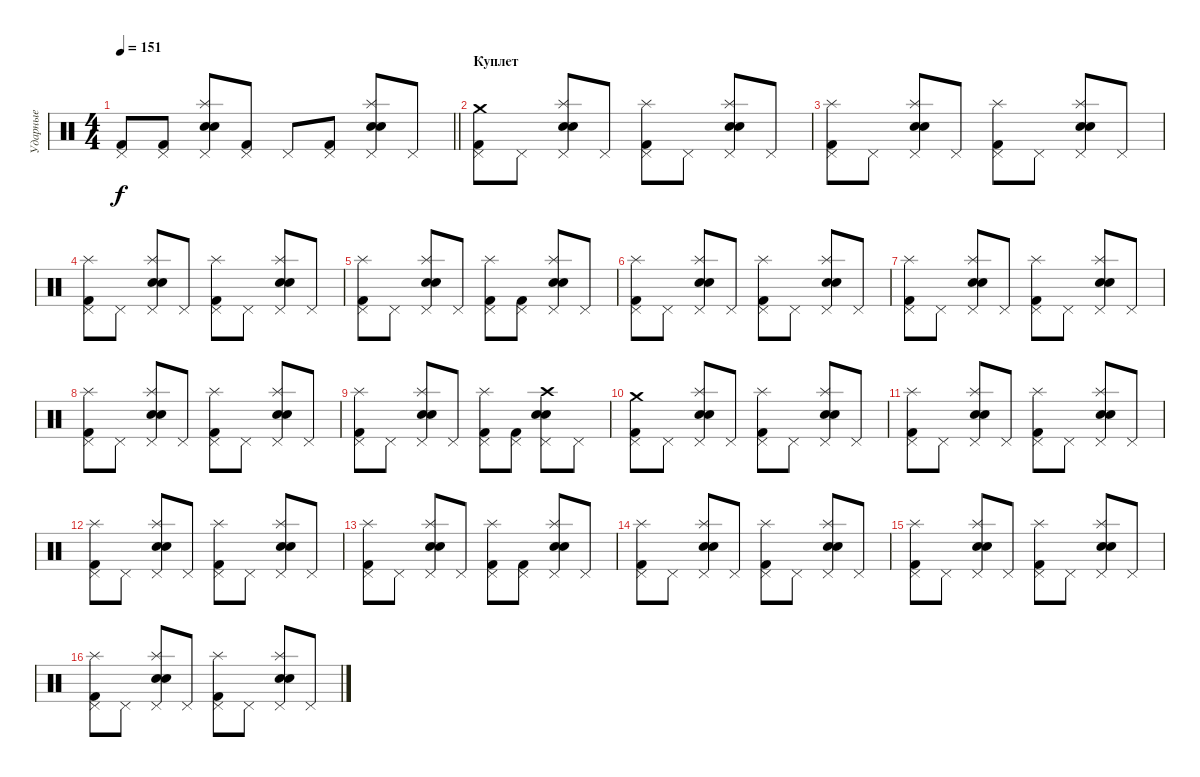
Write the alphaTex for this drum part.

\track ("Ударные" "Ударные") {instrument percussion}
\staff {score}
\articulation defaults
\ts (4 4)
\tempo 151
\clef neutral
\barLineRight lightlight
\ks c
("Pedal Hi-Hat (hit)" "Kick (hit) 2").8{dy f} ("Pedal Hi-Hat (hit)" "Kick (hit) 2").8 ("Pedal Hi-Hat (hit)" "Splash (hit)" "Electric Snare (hit)" "Snare (hit) 2").8 ("Pedal Hi-Hat (hit)" "Kick (hit) 2").8 "Pedal Hi-Hat (hit)".8 ("Pedal Hi-Hat (hit)" "Kick (hit) 2").8 ("Pedal Hi-Hat (hit)" "Splash (hit)" "Electric Snare (hit)" "Snare (hit) 2").8 "Pedal Hi-Hat (hit)".8 |
\section ("" "Куплет")
("Pedal Hi-Hat (hit)" "Crash medium (hit)" "Kick (hit) 2").8 "Pedal Hi-Hat (hit)".8 ("Pedal Hi-Hat (hit)" "Splash (hit)" "Electric Snare (hit)" "Snare (hit) 2").8 "Pedal Hi-Hat (hit)".8 ("Pedal Hi-Hat (hit)" "Splash (hit)" "Kick (hit) 2").8 "Pedal Hi-Hat (hit)".8 ("Pedal Hi-Hat (hit)" "Splash (hit)" "Electric Snare (hit)" "Snare (hit) 2").8 "Pedal Hi-Hat (hit)".8 |
("Pedal Hi-Hat (hit)" "Splash (hit)" "Kick (hit) 2").8 "Pedal Hi-Hat (hit)".8 ("Pedal Hi-Hat (hit)" "Splash (hit)" "Electric Snare (hit)" "Snare (hit) 2").8 "Pedal Hi-Hat (hit)".8 ("Pedal Hi-Hat (hit)" "Splash (hit)" "Kick (hit) 2").8 "Pedal Hi-Hat (hit)".8 ("Pedal Hi-Hat (hit)" "Splash (hit)" "Electric Snare (hit)" "Snare (hit) 2").8 "Pedal Hi-Hat (hit)".8 |
("Pedal Hi-Hat (hit)" "Splash (hit)" "Kick (hit) 2").8 "Pedal Hi-Hat (hit)".8 ("Pedal Hi-Hat (hit)" "Splash (hit)" "Electric Snare (hit)" "Snare (hit) 2").8 "Pedal Hi-Hat (hit)".8 ("Pedal Hi-Hat (hit)" "Splash (hit)" "Kick (hit) 2").8 "Pedal Hi-Hat (hit)".8 ("Pedal Hi-Hat (hit)" "Splash (hit)" "Electric Snare (hit)" "Snare (hit) 2").8 "Pedal Hi-Hat (hit)".8 |
("Pedal Hi-Hat (hit)" "Splash (hit)" "Kick (hit) 2").8 "Pedal Hi-Hat (hit)".8 ("Pedal Hi-Hat (hit)" "Splash (hit)" "Electric Snare (hit)" "Snare (hit) 2").8 "Pedal Hi-Hat (hit)".8 ("Pedal Hi-Hat (hit)" "Splash (hit)" "Kick (hit) 2").8 ("Pedal Hi-Hat (hit)" "Kick (hit) 2").8 ("Pedal Hi-Hat (hit)" "Splash (hit)" "Electric Snare (hit)" "Snare (hit) 2").8 "Pedal Hi-Hat (hit)".8 |
("Pedal Hi-Hat (hit)" "Splash (hit)" "Kick (hit) 2").8 "Pedal Hi-Hat (hit)".8 ("Pedal Hi-Hat (hit)" "Splash (hit)" "Electric Snare (hit)" "Snare (hit) 2").8 "Pedal Hi-Hat (hit)".8 ("Pedal Hi-Hat (hit)" "Splash (hit)" "Kick (hit) 2").8 "Pedal Hi-Hat (hit)".8 ("Pedal Hi-Hat (hit)" "Splash (hit)" "Electric Snare (hit)" "Snare (hit) 2").8 "Pedal Hi-Hat (hit)".8 |
("Pedal Hi-Hat (hit)" "Splash (hit)" "Kick (hit) 2").8 "Pedal Hi-Hat (hit)".8 ("Pedal Hi-Hat (hit)" "Splash (hit)" "Electric Snare (hit)" "Snare (hit) 2").8 "Pedal Hi-Hat (hit)".8 ("Pedal Hi-Hat (hit)" "Splash (hit)" "Kick (hit) 2").8 "Pedal Hi-Hat (hit)".8 ("Pedal Hi-Hat (hit)" "Splash (hit)" "Electric Snare (hit)" "Snare (hit) 2").8 "Pedal Hi-Hat (hit)".8 |
("Pedal Hi-Hat (hit)" "Splash (hit)" "Kick (hit) 2").8 "Pedal Hi-Hat (hit)".8 ("Pedal Hi-Hat (hit)" "Splash (hit)" "Electric Snare (hit)" "Snare (hit) 2").8 "Pedal Hi-Hat (hit)".8 ("Pedal Hi-Hat (hit)" "Splash (hit)" "Kick (hit) 2").8 "Pedal Hi-Hat (hit)".8 ("Pedal Hi-Hat (hit)" "Splash (hit)" "Electric Snare (hit)" "Snare (hit) 2").8 "Pedal Hi-Hat (hit)".8 |
("Pedal Hi-Hat (hit)" "Splash (hit)" "Kick (hit) 2").8 "Pedal Hi-Hat (hit)".8 ("Pedal Hi-Hat (hit)" "Splash (hit)" "Electric Snare (hit)" "Snare (hit) 2").8 "Pedal Hi-Hat (hit)".8 ("Pedal Hi-Hat (hit)" "Splash (hit)" "Kick (hit) 2").8 ("Pedal Hi-Hat (hit)" "Kick (hit) 2").8 ("Pedal Hi-Hat (hit)" "Crash high (hit)" "Electric Snare (hit)" "Snare (hit) 2").8 "Pedal Hi-Hat (hit)".8 |
("Pedal Hi-Hat (hit)" "Crash medium (hit)" "Kick (hit) 2").8 "Pedal Hi-Hat (hit)".8 ("Pedal Hi-Hat (hit)" "Splash (hit)" "Electric Snare (hit)" "Snare (hit) 2").8 "Pedal Hi-Hat (hit)".8 ("Pedal Hi-Hat (hit)" "Splash (hit)" "Kick (hit) 2").8 "Pedal Hi-Hat (hit)".8 ("Pedal Hi-Hat (hit)" "Splash (hit)" "Electric Snare (hit)" "Snare (hit) 2").8 "Pedal Hi-Hat (hit)".8 |
("Pedal Hi-Hat (hit)" "Splash (hit)" "Kick (hit) 2").8 "Pedal Hi-Hat (hit)".8 ("Pedal Hi-Hat (hit)" "Splash (hit)" "Electric Snare (hit)" "Snare (hit) 2").8 "Pedal Hi-Hat (hit)".8 ("Pedal Hi-Hat (hit)" "Splash (hit)" "Kick (hit) 2").8 "Pedal Hi-Hat (hit)".8 ("Pedal Hi-Hat (hit)" "Splash (hit)" "Electric Snare (hit)" "Snare (hit) 2").8 "Pedal Hi-Hat (hit)".8 |
("Pedal Hi-Hat (hit)" "Splash (hit)" "Kick (hit) 2").8 "Pedal Hi-Hat (hit)".8 ("Pedal Hi-Hat (hit)" "Splash (hit)" "Electric Snare (hit)" "Snare (hit) 2").8 "Pedal Hi-Hat (hit)".8 ("Pedal Hi-Hat (hit)" "Splash (hit)" "Kick (hit) 2").8 "Pedal Hi-Hat (hit)".8 ("Pedal Hi-Hat (hit)" "Splash (hit)" "Electric Snare (hit)" "Snare (hit) 2").8 "Pedal Hi-Hat (hit)".8 |
("Pedal Hi-Hat (hit)" "Splash (hit)" "Kick (hit) 2").8 "Pedal Hi-Hat (hit)".8 ("Pedal Hi-Hat (hit)" "Splash (hit)" "Electric Snare (hit)" "Snare (hit) 2").8 "Pedal Hi-Hat (hit)".8 ("Pedal Hi-Hat (hit)" "Splash (hit)" "Kick (hit) 2").8 ("Pedal Hi-Hat (hit)" "Kick (hit) 2").8 ("Pedal Hi-Hat (hit)" "Splash (hit)" "Electric Snare (hit)" "Snare (hit) 2").8 "Pedal Hi-Hat (hit)".8 |
("Pedal Hi-Hat (hit)" "Splash (hit)" "Kick (hit) 2").8 "Pedal Hi-Hat (hit)".8 ("Pedal Hi-Hat (hit)" "Splash (hit)" "Electric Snare (hit)" "Snare (hit) 2").8 "Pedal Hi-Hat (hit)".8 ("Pedal Hi-Hat (hit)" "Splash (hit)" "Kick (hit) 2").8 "Pedal Hi-Hat (hit)".8 ("Pedal Hi-Hat (hit)" "Splash (hit)" "Electric Snare (hit)" "Snare (hit) 2").8 "Pedal Hi-Hat (hit)".8 |
("Pedal Hi-Hat (hit)" "Splash (hit)" "Kick (hit) 2").8 "Pedal Hi-Hat (hit)".8 ("Pedal Hi-Hat (hit)" "Splash (hit)" "Electric Snare (hit)" "Snare (hit) 2").8 "Pedal Hi-Hat (hit)".8 ("Pedal Hi-Hat (hit)" "Splash (hit)" "Kick (hit) 2").8 "Pedal Hi-Hat (hit)".8 ("Pedal Hi-Hat (hit)" "Splash (hit)" "Electric Snare (hit)" "Snare (hit) 2").8 "Pedal Hi-Hat (hit)".8 |
("Pedal Hi-Hat (hit)" "Splash (hit)" "Kick (hit) 2").8 "Pedal Hi-Hat (hit)".8 ("Pedal Hi-Hat (hit)" "Splash (hit)" "Electric Snare (hit)" "Snare (hit) 2").8 "Pedal Hi-Hat (hit)".8 ("Pedal Hi-Hat (hit)" "Splash (hit)" "Kick (hit) 2").8 "Pedal Hi-Hat (hit)".8 ("Pedal Hi-Hat (hit)" "Splash (hit)" "Electric Snare (hit)" "Snare (hit) 2").8 "Pedal Hi-Hat (hit)".8
